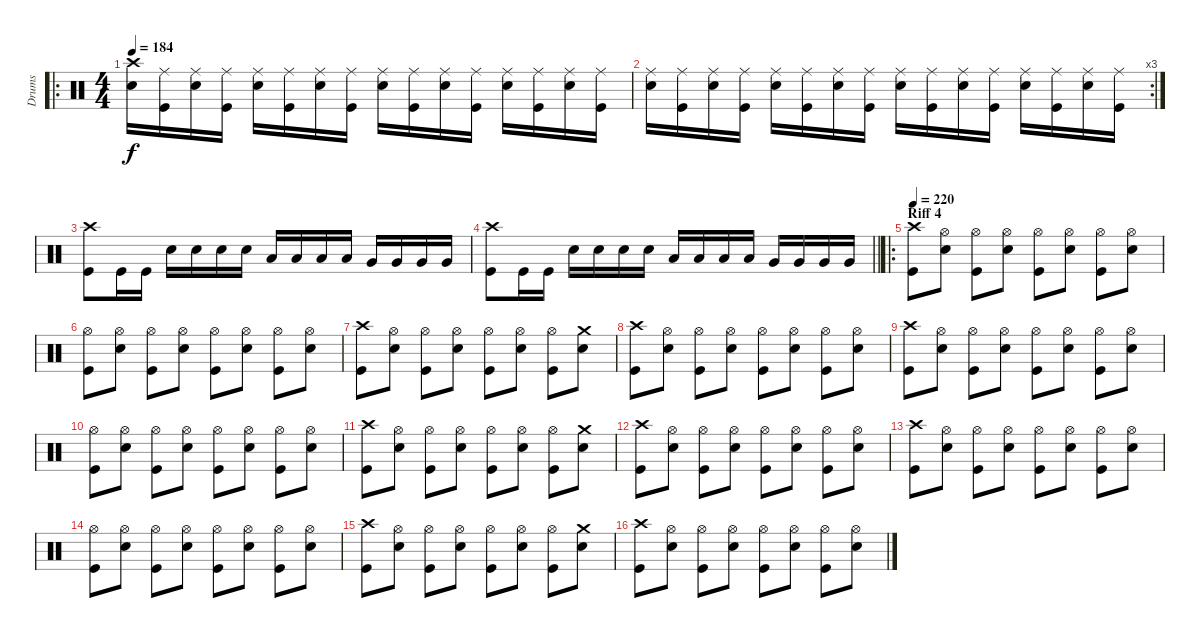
\track ("Drums" "Drums") {instrument percussion}
\staff {score}
\articulation defaults
\ro
\ts (4 4)
\tempo 184
\clef neutral
\ks c
("Crash high (hit)" "Snare (hit) 2").16{dy f} ("Ride (middle)" "Kick (hit)").16 ("Ride (middle)" "Snare (hit) 2").16 ("Ride (middle)" "Kick (hit)").16 ("Ride (middle)" "Snare (hit) 2").16 ("Ride (middle)" "Kick (hit)").16 ("Ride (middle)" "Snare (hit) 2").16 ("Ride (middle)" "Kick (hit)").16 ("Ride (middle)" "Snare (hit) 2").16 ("Ride (middle)" "Kick (hit)").16 ("Ride (middle)" "Snare (hit) 2").16 ("Ride (middle)" "Kick (hit)").16 ("Ride (middle)" "Snare (hit) 2").16 ("Ride (middle)" "Kick (hit)").16 ("Ride (middle)" "Snare (hit) 2").16 ("Ride (middle)" "Kick (hit)").16 |
\rc 3
("Ride (middle)" "Snare (hit) 2").16 ("Ride (middle)" "Kick (hit)").16 ("Ride (middle)" "Snare (hit) 2").16 ("Ride (middle)" "Kick (hit)").16 ("Ride (middle)" "Snare (hit) 2").16 ("Ride (middle)" "Kick (hit)").16 ("Ride (middle)" "Snare (hit) 2").16 ("Ride (middle)" "Kick (hit)").16 ("Ride (middle)" "Snare (hit) 2").16 ("Ride (middle)" "Kick (hit)").16 ("Ride (middle)" "Snare (hit) 2").16 ("Ride (middle)" "Kick (hit)").16 ("Ride (middle)" "Snare (hit) 2").16 ("Ride (middle)" "Kick (hit)").16 ("Ride (middle)" "Snare (hit) 2").16 ("Ride (middle)" "Kick (hit)").16 |
("Crash high (hit)" "Kick (hit)").8 "Kick (hit)".16 "Kick (hit)".16 "Snare (hit) 2".16 "Snare (hit) 2".16 "Snare (hit) 2".16 "Snare (hit) 2".16 "Low Tom (hit)".16 "Low Tom (hit)".16 "Low Tom (hit)".16 "Low Tom (hit)".16 "Very Low Tom (hit)".16 "Very Low Tom (hit)".16 "Very Low Tom (hit)".16 "Very Low Tom (hit)".16 |
\barLineRight lightlight
("Crash high (hit)" "Kick (hit)").8 "Kick (hit)".16 "Kick (hit)".16 "Snare (hit) 2".16 "Snare (hit) 2".16 "Snare (hit) 2".16 "Snare (hit) 2".16 "Low Tom (hit)".16 "Low Tom (hit)".16 "Low Tom (hit)".16 "Low Tom (hit)".16 "Very Low Tom (hit)".16 "Very Low Tom (hit)".16 "Very Low Tom (hit)".16 "Very Low Tom (hit)".16 |
\ro
\section ("" "Riff 4")
\tempo 220
("Crash high (hit)" "Kick (hit)").8 ("Hi-Hat (open)" "Snare (hit) 2").8 ("Hi-Hat (open)" "Kick (hit)").8 ("Hi-Hat (open)" "Snare (hit) 2").8 ("Hi-Hat (open)" "Kick (hit)").8 ("Hi-Hat (open)" "Snare (hit) 2").8 ("Hi-Hat (open)" "Kick (hit)").8 ("Hi-Hat (open)" "Snare (hit) 2").8 |
("Hi-Hat (open)" "Kick (hit)").8 ("Hi-Hat (open)" "Snare (hit) 2").8 ("Hi-Hat (open)" "Kick (hit)").8 ("Hi-Hat (open)" "Snare (hit) 2").8 ("Hi-Hat (open)" "Kick (hit)").8 ("Hi-Hat (open)" "Snare (hit) 2").8 ("Hi-Hat (open)" "Kick (hit)").8 ("Hi-Hat (open)" "Snare (hit) 2").8 |
("Crash high (hit)" "Kick (hit)").8 ("Hi-Hat (open)" "Snare (hit) 2").8 ("Hi-Hat (open)" "Kick (hit)").8 ("Hi-Hat (open)" "Snare (hit) 2").8 ("Hi-Hat (open)" "Kick (hit)").8 ("Hi-Hat (open)" "Snare (hit) 2").8 ("Hi-Hat (open)" "Kick (hit)").8 ("Crash medium (hit)" "Snare (hit) 2").8 |
("Crash high (hit)" "Kick (hit)").8 ("Hi-Hat (open)" "Snare (hit) 2").8 ("Hi-Hat (open)" "Kick (hit)").8 ("Hi-Hat (open)" "Snare (hit) 2").8 ("Hi-Hat (open)" "Kick (hit)").8 ("Hi-Hat (open)" "Snare (hit) 2").8 ("Hi-Hat (open)" "Kick (hit)").8 ("Hi-Hat (open)" "Snare (hit) 2").8 |
("Crash high (hit)" "Kick (hit)").8 ("Hi-Hat (open)" "Snare (hit) 2").8 ("Hi-Hat (open)" "Kick (hit)").8 ("Hi-Hat (open)" "Snare (hit) 2").8 ("Hi-Hat (open)" "Kick (hit)").8 ("Hi-Hat (open)" "Snare (hit) 2").8 ("Hi-Hat (open)" "Kick (hit)").8 ("Hi-Hat (open)" "Snare (hit) 2").8 |
("Hi-Hat (open)" "Kick (hit)").8 ("Hi-Hat (open)" "Snare (hit) 2").8 ("Hi-Hat (open)" "Kick (hit)").8 ("Hi-Hat (open)" "Snare (hit) 2").8 ("Hi-Hat (open)" "Kick (hit)").8 ("Hi-Hat (open)" "Snare (hit) 2").8 ("Hi-Hat (open)" "Kick (hit)").8 ("Hi-Hat (open)" "Snare (hit) 2").8 |
("Crash high (hit)" "Kick (hit)").8 ("Hi-Hat (open)" "Snare (hit) 2").8 ("Hi-Hat (open)" "Kick (hit)").8 ("Hi-Hat (open)" "Snare (hit) 2").8 ("Hi-Hat (open)" "Kick (hit)").8 ("Hi-Hat (open)" "Snare (hit) 2").8 ("Hi-Hat (open)" "Kick (hit)").8 ("Crash medium (hit)" "Snare (hit) 2").8 |
("Crash high (hit)" "Kick (hit)").8 ("Hi-Hat (open)" "Snare (hit) 2").8 ("Hi-Hat (open)" "Kick (hit)").8 ("Hi-Hat (open)" "Snare (hit) 2").8 ("Hi-Hat (open)" "Kick (hit)").8 ("Hi-Hat (open)" "Snare (hit) 2").8 ("Hi-Hat (open)" "Kick (hit)").8 ("Hi-Hat (open)" "Snare (hit) 2").8 |
("Crash high (hit)" "Kick (hit)").8 ("Hi-Hat (open)" "Snare (hit) 2").8 ("Hi-Hat (open)" "Kick (hit)").8 ("Hi-Hat (open)" "Snare (hit) 2").8 ("Hi-Hat (open)" "Kick (hit)").8 ("Hi-Hat (open)" "Snare (hit) 2").8 ("Hi-Hat (open)" "Kick (hit)").8 ("Hi-Hat (open)" "Snare (hit) 2").8 |
("Hi-Hat (open)" "Kick (hit)").8 ("Hi-Hat (open)" "Snare (hit) 2").8 ("Hi-Hat (open)" "Kick (hit)").8 ("Hi-Hat (open)" "Snare (hit) 2").8 ("Hi-Hat (open)" "Kick (hit)").8 ("Hi-Hat (open)" "Snare (hit) 2").8 ("Hi-Hat (open)" "Kick (hit)").8 ("Hi-Hat (open)" "Snare (hit) 2").8 |
("Crash high (hit)" "Kick (hit)").8 ("Hi-Hat (open)" "Snare (hit) 2").8 ("Hi-Hat (open)" "Kick (hit)").8 ("Hi-Hat (open)" "Snare (hit) 2").8 ("Hi-Hat (open)" "Kick (hit)").8 ("Hi-Hat (open)" "Snare (hit) 2").8 ("Hi-Hat (open)" "Kick (hit)").8 ("Crash medium (hit)" "Snare (hit) 2").8 |
("Crash high (hit)" "Kick (hit)").8 ("Hi-Hat (open)" "Snare (hit) 2").8 ("Hi-Hat (open)" "Kick (hit)").8 ("Hi-Hat (open)" "Snare (hit) 2").8 ("Hi-Hat (open)" "Kick (hit)").8 ("Hi-Hat (open)" "Snare (hit) 2").8 ("Hi-Hat (open)" "Kick (hit)").8 ("Hi-Hat (open)" "Snare (hit) 2").8
